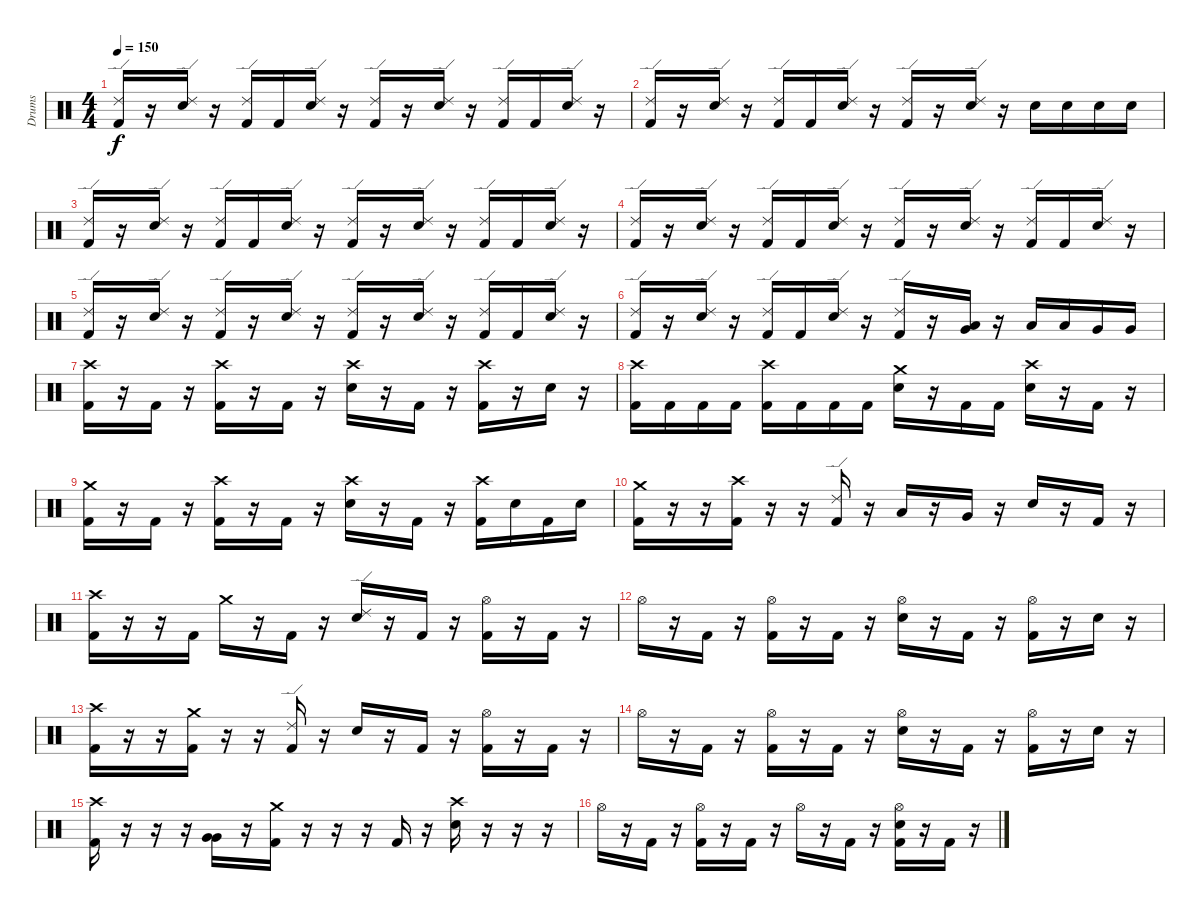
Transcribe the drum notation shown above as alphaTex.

\track ("Drums" "Drums") {instrument percussion}
\staff {score}
\articulation defaults
\ts (4 4)
\tempo 150
\clef neutral
\ks c
("Ride (edge) 2" "Kick (hit) 2").16{dy f} r.16 ("Ride (edge) 2" "Electric Snare (hit)").16 r.16 ("Ride (edge) 2" "Kick (hit) 2").16 "Kick (hit) 2".16 ("Ride (edge) 2" "Electric Snare (hit)").16 r.16 ("Ride (edge) 2" "Kick (hit) 2").16 r.16 ("Ride (edge) 2" "Electric Snare (hit)").16 r.16 ("Ride (edge) 2" "Kick (hit) 2").16 "Kick (hit) 2".16 ("Ride (edge) 2" "Electric Snare (hit)").16 r.16 |
("Ride (edge) 2" "Kick (hit) 2").16 r.16 ("Ride (edge) 2" "Electric Snare (hit)").16 r.16 ("Ride (edge) 2" "Kick (hit) 2").16 "Kick (hit) 2".16 ("Ride (edge) 2" "Electric Snare (hit)").16 r.16 ("Ride (edge) 2" "Kick (hit) 2").16 r.16 ("Ride (edge) 2" "Electric Snare (hit)").16 r.16 "Electric Snare (hit)".16 "Electric Snare (hit)".16 "Electric Snare (hit)".16 "Electric Snare (hit)".16 |
("Ride (edge) 2" "Kick (hit) 2").16 r.16 ("Ride (edge) 2" "Electric Snare (hit)").16 r.16 ("Ride (edge) 2" "Kick (hit) 2").16 "Kick (hit) 2".16 ("Ride (edge) 2" "Electric Snare (hit)").16 r.16 ("Ride (edge) 2" "Kick (hit) 2").16 r.16 ("Ride (edge) 2" "Electric Snare (hit)").16 r.16 ("Ride (edge) 2" "Kick (hit) 2").16 "Kick (hit) 2".16 ("Ride (edge) 2" "Electric Snare (hit)").16 r.16 |
("Ride (edge) 2" "Kick (hit) 2").16 r.16 ("Ride (edge) 2" "Electric Snare (hit)").16 r.16 ("Ride (edge) 2" "Kick (hit) 2").16 "Kick (hit) 2".16 ("Ride (edge) 2" "Electric Snare (hit)").16 r.16 ("Ride (edge) 2" "Kick (hit) 2").16 r.16 ("Ride (edge) 2" "Electric Snare (hit)").16 r.16 ("Ride (edge) 2" "Kick (hit) 2").16 "Kick (hit) 2".16 ("Ride (edge) 2" "Electric Snare (hit)").16 r.16 |
("Ride (edge) 2" "Kick (hit) 2").16 r.16 ("Ride (edge) 2" "Electric Snare (hit)").16 r.16 ("Ride (edge) 2" "Kick (hit) 2").16 r.16 ("Ride (edge) 2" "Electric Snare (hit)").16 r.16 ("Ride (edge) 2" "Kick (hit) 2").16 r.16 ("Ride (edge) 2" "Electric Snare (hit)").16 r.16 ("Ride (edge) 2" "Kick (hit) 2").16 "Kick (hit) 2".16 ("Ride (edge) 2" "Electric Snare (hit)").16 r.16 |
("Ride (edge) 2" "Kick (hit) 2").16 r.16 ("Ride (edge) 2" "Electric Snare (hit)").16 r.16 ("Ride (edge) 2" "Kick (hit) 2").16 "Kick (hit) 2".16 ("Ride (edge) 2" "Electric Snare (hit)").16 r.16 ("Ride (edge) 2" "Kick (hit) 2").16 r.16 ("Low Tom (hit)" "Very Low Tom (hit)").16 r.16 "Low Tom (hit)".16 "Low Tom (hit)".16 "Very Low Tom (hit)".16 "Very Low Tom (hit)".16 |
("Crash high (hit)" "Kick (hit) 2").16 r.16 "Kick (hit) 2".16 r.16 ("Crash high (hit)" "Kick (hit) 2").16 r.16 "Kick (hit) 2".16 r.16 ("Crash high (hit)" "Electric Snare (hit)").16 r.16 "Kick (hit) 2".16 r.16 ("Crash high (hit)" "Kick (hit) 2").16 r.16 "Electric Snare (hit)".16 r.16 |
("Crash high (hit)" "Kick (hit) 2").16 "Kick (hit) 2".16 "Kick (hit) 2".16 "Kick (hit) 2".16 ("Crash high (hit)" "Kick (hit) 2").16 "Kick (hit) 2".16 "Kick (hit) 2".16 "Kick (hit) 2".16 ("Crash medium (hit)" "Electric Snare (hit)").16 r.16 "Kick (hit) 2".16 "Kick (hit) 2".16 ("Crash high (hit)" "Electric Snare (hit)").16 r.16 "Kick (hit) 2".16 r.16 |
("Crash medium (hit)" "Kick (hit) 2").16 r.16 "Kick (hit) 2".16 r.16 ("Crash high (hit)" "Kick (hit) 2").16 r.16 "Kick (hit) 2".16 r.16 ("Crash high (hit)" "Electric Snare (hit)").16 r.16 "Kick (hit) 2".16 r.16 ("Crash high (hit)" "Kick (hit) 2").16 "Electric Snare (hit)".16 "Kick (hit) 2".16 "Electric Snare (hit)".16 |
("Crash medium (hit)" "Kick (hit) 2").16 r.16 r.16 ("Crash high (hit)" "Kick (hit) 2").16 r.16 r.16 ("Ride (edge) 2" "Kick (hit) 2").16 r.16 "Low Tom (hit)".16 r.16 "Very Low Tom (hit)".16 r.16 "Electric Snare (hit)".16 r.16 "Kick (hit) 2".16 r.16 |
("Crash high (hit)" "Kick (hit) 2").16 r.16 r.16 "Kick (hit) 2".16 "Crash medium (hit)".16 r.16 "Kick (hit) 2".16 r.16 ("Ride (edge) 2" "Electric Snare (hit)").16 r.16 "Kick (hit) 2".16 r.16 ("Hi-Hat (open)" "Kick (hit) 2").16 r.16 "Kick (hit) 2".16 r.16 |
"Hi-Hat (open)".16 r.16 "Kick (hit) 2".16 r.16 ("Hi-Hat (open)" "Kick (hit) 2").16 r.16 "Kick (hit) 2".16 r.16 ("Hi-Hat (open)" "Electric Snare (hit)").16 r.16 "Kick (hit) 2".16 r.16 ("Hi-Hat (open)" "Kick (hit) 2").16 r.16 "Electric Snare (hit)".16 r.16 |
("Crash high (hit)" "Kick (hit) 2").16 r.16 r.16 ("Crash medium (hit)" "Kick (hit) 2").16 r.16 r.16 ("Ride (edge) 2" "Kick (hit) 2").16 r.16 "Electric Snare (hit)".16 r.16 "Kick (hit) 2".16 r.16 ("Hi-Hat (open)" "Kick (hit) 2").16 r.16 "Kick (hit) 2".16 r.16 |
"Hi-Hat (open)".16 r.16 "Kick (hit) 2".16 r.16 ("Hi-Hat (open)" "Kick (hit) 2").16 r.16 "Kick (hit) 2".16 r.16 ("Hi-Hat (open)" "Electric Snare (hit)").16 r.16 "Kick (hit) 2".16 r.16 ("Hi-Hat (open)" "Kick (hit) 2").16 r.16 "Electric Snare (hit)".16 r.16 |
("Crash high (hit)" "Kick (hit) 2").16 r.16 r.16 r.16 ("Very Low Tom (hit)" "Very Low Tom (hit)").16 r.16 ("Crash medium (hit)" "Kick (hit) 2").16 r.16 r.16 r.16 "Kick (hit) 2".16 r.16 ("Crash high (hit)" "Electric Snare (hit)").16 r.16 r.16 r.16 |
"Hi-Hat (open)".16 r.16 "Kick (hit) 2".16 r.16 ("Hi-Hat (open)" "Kick (hit) 2").16 r.16 "Kick (hit) 2".16 r.16 "Hi-Hat (open)".16 r.16 "Kick (hit) 2".16 r.16 ("Hi-Hat (open)" "Electric Snare (hit)" "Kick (hit) 2").16 r.16 "Kick (hit) 2".16 r.16
